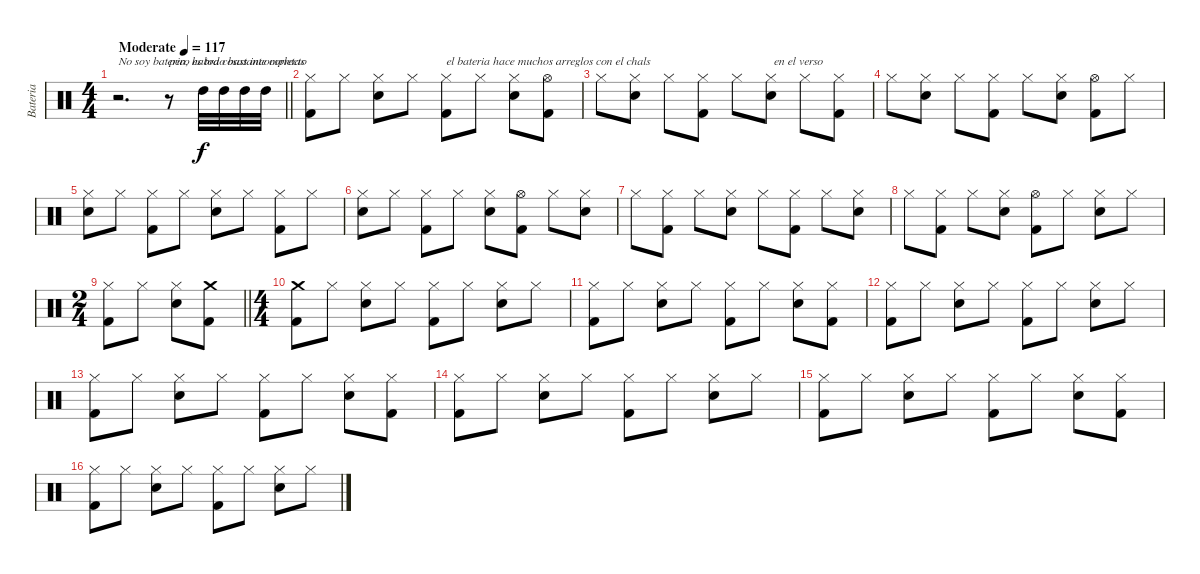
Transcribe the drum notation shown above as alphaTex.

\track ("Bateria" "Bateria") {instrument percussion}
\staff
\articulation defaults
\ts (4 4)
\tempo (117 "Moderate")
\clef neutral
\barLineRight lightlight
\ks c
r.2{d txt "No soy bateria, habra cosas incompletas" dy f} r.8{txt "pero es todo bastante correcto"} "High Tom (hit)".32 "High Tom (hit)".32 "High Tom (hit)".32 "High Tom (hit)".32 |
("Hi-Hat (closed)" "Kick (hit) 2").8 "Hi-Hat (closed)".8 ("Hi-Hat (closed)" "Snare (hit) 2").8 "Hi-Hat (closed)".8 ("Hi-Hat (closed)" "Kick (hit) 2").8{txt "el bateria hace muchos arreglos con el chals"} "Hi-Hat (closed)".8 ("Hi-Hat (closed)" "Snare (hit) 2").8 ("Hi-Hat (open)" "Kick (hit) 2").8 |
"Hi-Hat (closed)".8 ("Hi-Hat (closed)" "Snare (hit) 2").8 "Hi-Hat (closed)".8 ("Hi-Hat (closed)" "Kick (hit) 2").8 "Hi-Hat (closed)".8 ("Hi-Hat (closed)" "Snare (hit) 2").8{txt " en el verso"} "Hi-Hat (closed)".8 ("Hi-Hat (closed)" "Kick (hit) 2").8 |
"Hi-Hat (closed)".8 ("Hi-Hat (closed)" "Snare (hit) 2").8 "Hi-Hat (closed)".8 ("Hi-Hat (closed)" "Kick (hit) 2").8 "Hi-Hat (closed)".8 ("Hi-Hat (closed)" "Snare (hit) 2").8 ("Hi-Hat (open)" "Kick (hit) 2").8 "Hi-Hat (closed)".8 |
("Hi-Hat (closed)" "Snare (hit) 2").8 "Hi-Hat (closed)".8 ("Hi-Hat (closed)" "Kick (hit) 2").8 "Hi-Hat (closed)".8 ("Hi-Hat (closed)" "Snare (hit) 2").8 "Hi-Hat (closed)".8 ("Hi-Hat (closed)" "Kick (hit) 2").8 "Hi-Hat (closed)".8 |
("Hi-Hat (closed)" "Snare (hit) 2").8 "Hi-Hat (closed)".8 ("Hi-Hat (closed)" "Kick (hit) 2").8 "Hi-Hat (closed)".8 ("Hi-Hat (closed)" "Snare (hit) 2").8 ("Hi-Hat (open)" "Kick (hit) 2").8 "Hi-Hat (closed)".8 ("Hi-Hat (closed)" "Snare (hit) 2").8 |
"Hi-Hat (closed)".8 ("Hi-Hat (closed)" "Kick (hit) 2").8 "Hi-Hat (closed)".8 ("Hi-Hat (closed)" "Snare (hit) 2").8 "Hi-Hat (closed)".8 ("Hi-Hat (closed)" "Kick (hit) 2").8 "Hi-Hat (closed)".8 ("Hi-Hat (closed)" "Snare (hit) 2").8 |
"Hi-Hat (closed)".8 ("Hi-Hat (closed)" "Kick (hit) 2").8 "Hi-Hat (closed)".8 ("Hi-Hat (closed)" "Snare (hit) 2").8 ("Hi-Hat (open)" "Kick (hit) 2").8 "Hi-Hat (closed)".8 ("Hi-Hat (closed)" "Snare (hit) 2").8 "Hi-Hat (closed)".8 |
\ts (2 4)
\barLineRight lightlight
("Hi-Hat (closed)" "Kick (hit) 2").8 "Hi-Hat (closed)".8 ("Hi-Hat (closed)" "Snare (hit) 2").8 ("Crash medium (hit)" "Kick (hit) 2").8 |
\ts (4 4)
("Crash medium (hit)" "Kick (hit) 2").8 "Hi-Hat (closed)".8 ("Hi-Hat (closed)" "Snare (hit) 2").8 "Hi-Hat (closed)".8 ("Hi-Hat (closed)" "Kick (hit) 2").8 "Hi-Hat (closed)".8 ("Hi-Hat (closed)" "Snare (hit) 2").8 "Hi-Hat (closed)".8 |
("Hi-Hat (closed)" "Kick (hit) 2").8 "Hi-Hat (closed)".8 ("Hi-Hat (closed)" "Snare (hit) 2").8 "Hi-Hat (closed)".8 ("Hi-Hat (closed)" "Kick (hit) 2").8 "Hi-Hat (closed)".8 ("Hi-Hat (closed)" "Snare (hit) 2").8 ("Hi-Hat (closed)" "Kick (hit) 2").8 |
("Hi-Hat (closed)" "Kick (hit) 2").8 "Hi-Hat (closed)".8 ("Hi-Hat (closed)" "Snare (hit) 2").8 "Hi-Hat (closed)".8 ("Hi-Hat (closed)" "Kick (hit) 2").8 "Hi-Hat (closed)".8 ("Hi-Hat (closed)" "Snare (hit) 2").8 "Hi-Hat (closed)".8 |
("Hi-Hat (closed)" "Kick (hit) 2").8 "Hi-Hat (closed)".8 ("Hi-Hat (closed)" "Snare (hit) 2").8 "Hi-Hat (closed)".8 ("Hi-Hat (closed)" "Kick (hit) 2").8 "Hi-Hat (closed)".8 ("Hi-Hat (closed)" "Snare (hit) 2").8 ("Hi-Hat (closed)" "Kick (hit) 2").8 |
("Hi-Hat (closed)" "Kick (hit) 2").8 "Hi-Hat (closed)".8 ("Hi-Hat (closed)" "Snare (hit) 2").8 "Hi-Hat (closed)".8 ("Hi-Hat (closed)" "Kick (hit) 2").8 "Hi-Hat (closed)".8 ("Hi-Hat (closed)" "Snare (hit) 2").8 "Hi-Hat (closed)".8 |
("Hi-Hat (closed)" "Kick (hit) 2").8 "Hi-Hat (closed)".8 ("Hi-Hat (closed)" "Snare (hit) 2").8 "Hi-Hat (closed)".8 ("Hi-Hat (closed)" "Kick (hit) 2").8 "Hi-Hat (closed)".8 ("Hi-Hat (closed)" "Snare (hit) 2").8 ("Hi-Hat (closed)" "Kick (hit) 2").8 |
("Hi-Hat (closed)" "Kick (hit) 2").8 "Hi-Hat (closed)".8 ("Hi-Hat (closed)" "Snare (hit) 2").8 "Hi-Hat (closed)".8 ("Hi-Hat (closed)" "Kick (hit) 2").8 "Hi-Hat (closed)".8 ("Hi-Hat (closed)" "Snare (hit) 2").8 "Hi-Hat (closed)".8
